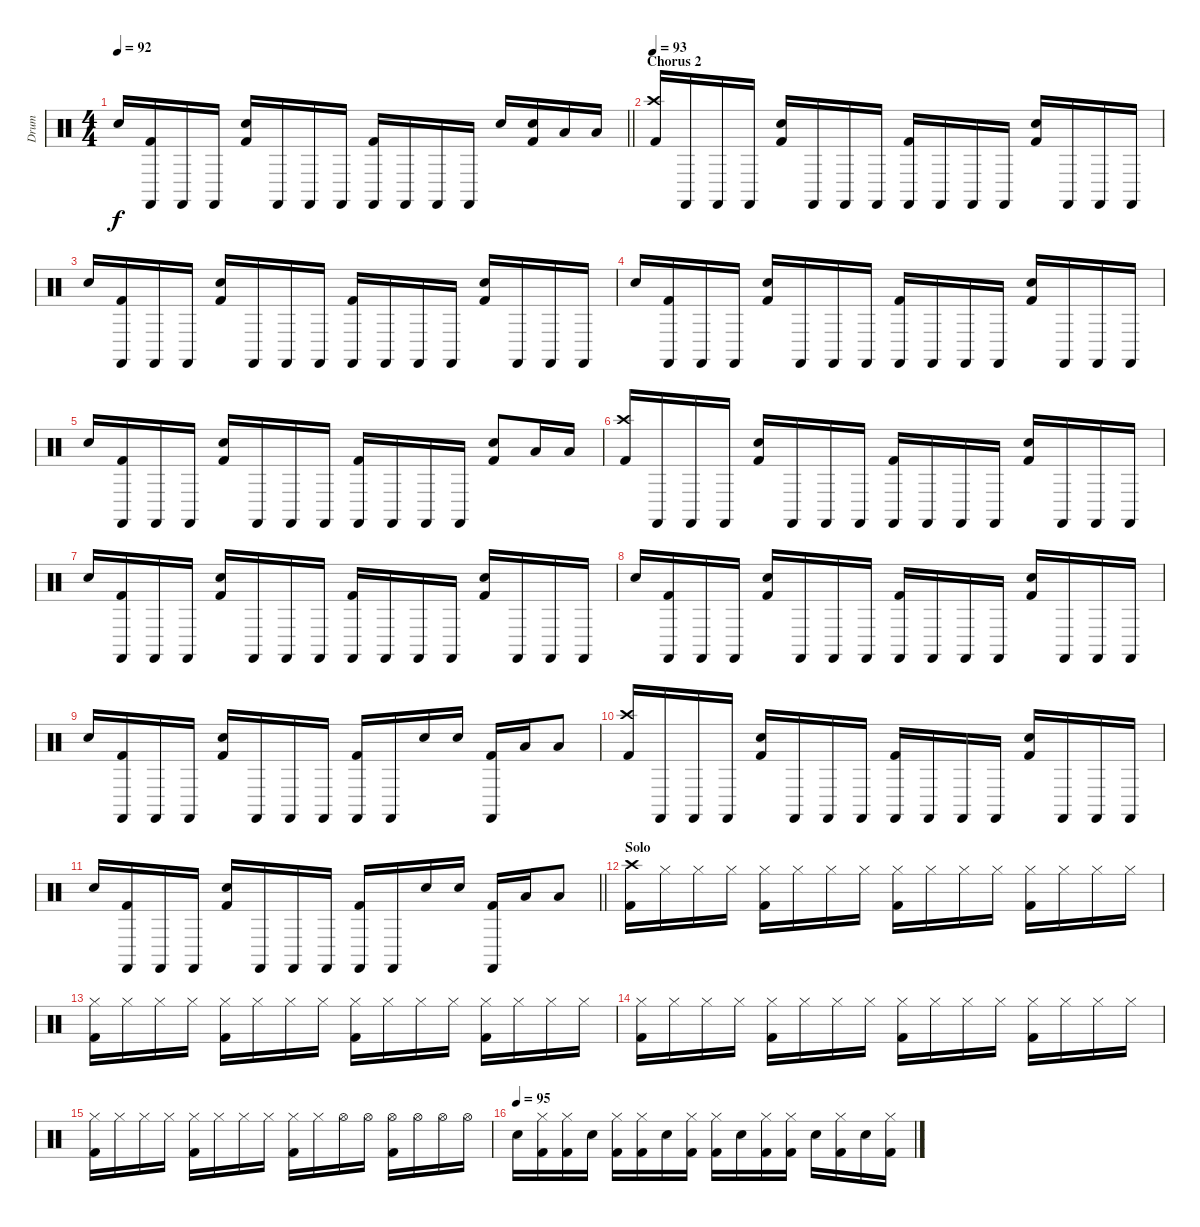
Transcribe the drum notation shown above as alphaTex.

\track ("Drum" "Drum") {instrument percussion}
\staff {score}
\articulation defaults
\ts (4 4)
\tempo 92
\clef neutral
\barLineRight lightlight
\ks c "Snare (hit) 2".16{dy f}
("Castanets (hit)" "Kick (hit) 2").16 "Castanets (hit)".16 "Castanets (hit)".16 ("Snare (hit) 2" "Kick (hit) 2").16 "Castanets (hit)".16 "Castanets (hit)".16 "Castanets (hit)".16 ("Castanets (hit)" "Kick (hit) 2").16 "Castanets (hit)".16 "Castanets (hit)".16 "Castanets (hit)".16 "Snare (hit) 2".16 ("Snare (hit) 2" "Kick (hit) 2").16 "Low Tom (hit)".16 "Low Tom (hit)".16 |
\section ("" "Chorus 2")
\tempo 93
("Crash high (hit)" "Kick (hit) 2").16 "Castanets (hit)".16 "Castanets (hit)".16 "Castanets (hit)".16 ("Snare (hit) 2" "Kick (hit) 2").16 "Castanets (hit)".16 "Castanets (hit)".16 "Castanets (hit)".16 ("Castanets (hit)" "Kick (hit) 2").16 "Castanets (hit)".16 "Castanets (hit)".16 "Castanets (hit)".16 ("Snare (hit) 2" "Kick (hit) 2").16 "Castanets (hit)".16 "Castanets (hit)".16 "Castanets (hit)".16 |
"Snare (hit) 2".16 ("Castanets (hit)" "Kick (hit) 2").16 "Castanets (hit)".16 "Castanets (hit)".16 ("Snare (hit) 2" "Kick (hit) 2").16 "Castanets (hit)".16 "Castanets (hit)".16 "Castanets (hit)".16 ("Castanets (hit)" "Kick (hit) 2").16 "Castanets (hit)".16 "Castanets (hit)".16 "Castanets (hit)".16 ("Snare (hit) 2" "Kick (hit) 2").16 "Castanets (hit)".16 "Castanets (hit)".16 "Castanets (hit)".16 |
"Snare (hit) 2".16 ("Castanets (hit)" "Kick (hit) 2").16 "Castanets (hit)".16 "Castanets (hit)".16 ("Snare (hit) 2" "Kick (hit) 2").16 "Castanets (hit)".16 "Castanets (hit)".16 "Castanets (hit)".16 ("Castanets (hit)" "Kick (hit) 2").16 "Castanets (hit)".16 "Castanets (hit)".16 "Castanets (hit)".16 ("Snare (hit) 2" "Kick (hit) 2").16 "Castanets (hit)".16 "Castanets (hit)".16 "Castanets (hit)".16 |
"Snare (hit) 2".16 ("Castanets (hit)" "Kick (hit) 2").16 "Castanets (hit)".16 "Castanets (hit)".16 ("Snare (hit) 2" "Kick (hit) 2").16 "Castanets (hit)".16 "Castanets (hit)".16 "Castanets (hit)".16 ("Castanets (hit)" "Kick (hit) 2").16 "Castanets (hit)".16 "Castanets (hit)".16 "Castanets (hit)".16 ("Snare (hit) 2" "Kick (hit) 2").8 "Low Tom (hit)".16 "Low Tom (hit)".16 |
("Crash high (hit)" "Kick (hit) 2").16 "Castanets (hit)".16 "Castanets (hit)".16 "Castanets (hit)".16 ("Snare (hit) 2" "Kick (hit) 2").16 "Castanets (hit)".16 "Castanets (hit)".16 "Castanets (hit)".16 ("Castanets (hit)" "Kick (hit) 2").16 "Castanets (hit)".16 "Castanets (hit)".16 "Castanets (hit)".16 ("Snare (hit) 2" "Kick (hit) 2").16 "Castanets (hit)".16 "Castanets (hit)".16 "Castanets (hit)".16 |
"Snare (hit) 2".16 ("Castanets (hit)" "Kick (hit) 2").16 "Castanets (hit)".16 "Castanets (hit)".16 ("Snare (hit) 2" "Kick (hit) 2").16 "Castanets (hit)".16 "Castanets (hit)".16 "Castanets (hit)".16 ("Castanets (hit)" "Kick (hit) 2").16 "Castanets (hit)".16 "Castanets (hit)".16 "Castanets (hit)".16 ("Snare (hit) 2" "Kick (hit) 2").16 "Castanets (hit)".16 "Castanets (hit)".16 "Castanets (hit)".16 |
"Snare (hit) 2".16 ("Castanets (hit)" "Kick (hit) 2").16 "Castanets (hit)".16 "Castanets (hit)".16 ("Snare (hit) 2" "Kick (hit) 2").16 "Castanets (hit)".16 "Castanets (hit)".16 "Castanets (hit)".16 ("Castanets (hit)" "Kick (hit) 2").16 "Castanets (hit)".16 "Castanets (hit)".16 "Castanets (hit)".16 ("Snare (hit) 2" "Kick (hit) 2").16 "Castanets (hit)".16 "Castanets (hit)".16 "Castanets (hit)".16 |
"Snare (hit) 2".16 ("Castanets (hit)" "Kick (hit) 2").16 "Castanets (hit)".16 "Castanets (hit)".16 ("Snare (hit) 2" "Kick (hit) 2").16 "Castanets (hit)".16 "Castanets (hit)".16 "Castanets (hit)".16 ("Castanets (hit)" "Kick (hit) 2").16 "Castanets (hit)".16 "Snare (hit) 2".16 "Snare (hit) 2".16 ("Castanets (hit)" "Kick (hit) 2").16 "Low Tom (hit)".16 "Low Tom (hit)".8 |
("Crash high (hit)" "Kick (hit) 2").16 "Castanets (hit)".16 "Castanets (hit)".16 "Castanets (hit)".16 ("Snare (hit) 2" "Kick (hit) 2").16 "Castanets (hit)".16 "Castanets (hit)".16 "Castanets (hit)".16 ("Castanets (hit)" "Kick (hit) 2").16 "Castanets (hit)".16 "Castanets (hit)".16 "Castanets (hit)".16 ("Snare (hit) 2" "Kick (hit) 2").16 "Castanets (hit)".16 "Castanets (hit)".16 "Castanets (hit)".16 |
\barLineRight lightlight "Snare (hit) 2".16
("Castanets (hit)" "Kick (hit) 2").16 "Castanets (hit)".16 "Castanets (hit)".16 ("Snare (hit) 2" "Kick (hit) 2").16 "Castanets (hit)".16 "Castanets (hit)".16 "Castanets (hit)".16 ("Castanets (hit)" "Kick (hit) 2").16 "Castanets (hit)".16 "Snare (hit) 2".16 "Snare (hit) 2".16 ("Castanets (hit)" "Kick (hit) 2").16 "Low Tom (hit)".16 "Low Tom (hit)".8 |
\section ("" "Solo")
("Crash high (hit)" "Kick (hit) 2").16 "Hi-Hat (closed)".16 "Hi-Hat (closed)".16 "Hi-Hat (closed)".16 ("Hi-Hat (closed)" "Kick (hit) 2").16 "Hi-Hat (closed)".16 "Hi-Hat (closed)".16 "Hi-Hat (closed)".16 ("Hi-Hat (closed)" "Kick (hit) 2").16 "Hi-Hat (closed)".16 "Hi-Hat (closed)".16 "Hi-Hat (closed)".16 ("Hi-Hat (closed)" "Kick (hit) 2").16 "Hi-Hat (closed)".16 "Hi-Hat (closed)".16 "Hi-Hat (closed)".16 |
("Hi-Hat (closed)" "Kick (hit) 2").16 "Hi-Hat (closed)".16 "Hi-Hat (closed)".16 "Hi-Hat (closed)".16 ("Hi-Hat (closed)" "Kick (hit) 2").16 "Hi-Hat (closed)".16 "Hi-Hat (closed)".16 "Hi-Hat (closed)".16 ("Hi-Hat (closed)" "Kick (hit) 2").16 "Hi-Hat (closed)".16 "Hi-Hat (closed)".16 "Hi-Hat (closed)".16 ("Hi-Hat (closed)" "Kick (hit) 2").16 "Hi-Hat (closed)".16 "Hi-Hat (closed)".16 "Hi-Hat (closed)".16 |
("Hi-Hat (closed)" "Kick (hit) 2").16 "Hi-Hat (closed)".16 "Hi-Hat (closed)".16 "Hi-Hat (closed)".16 ("Hi-Hat (closed)" "Kick (hit) 2").16 "Hi-Hat (closed)".16 "Hi-Hat (closed)".16 "Hi-Hat (closed)".16 ("Hi-Hat (closed)" "Kick (hit) 2").16 "Hi-Hat (closed)".16 "Hi-Hat (closed)".16 "Hi-Hat (closed)".16 ("Hi-Hat (closed)" "Kick (hit) 2").16 "Hi-Hat (closed)".16 "Hi-Hat (closed)".16 "Hi-Hat (closed)".16 |
("Hi-Hat (closed)" "Kick (hit) 2").16 "Hi-Hat (closed)".16 "Hi-Hat (closed)".16 "Hi-Hat (closed)".16 ("Hi-Hat (closed)" "Kick (hit) 2").16 "Hi-Hat (closed)".16 "Hi-Hat (closed)".16 "Hi-Hat (closed)".16 ("Hi-Hat (closed)" "Kick (hit) 2").16 "Hi-Hat (closed)".16 "Hi-Hat (open)".16 "Hi-Hat (open)".16 ("Hi-Hat (open)" "Kick (hit) 2").16 "Hi-Hat (open)".16 "Hi-Hat (open)".16 "Hi-Hat (open)".16 |
\tempo (95)
"Snare (hit) 2".16 ("Hi-Hat (closed)" "Kick (hit) 2").16 ("Hi-Hat (closed)" "Kick (hit) 2").16 "Snare (hit) 2".16 ("Hi-Hat (closed)" "Kick (hit) 2").16 ("Hi-Hat (closed)" "Kick (hit) 2").16 "Snare (hit) 2".16 ("Hi-Hat (closed)" "Kick (hit) 2").16 ("Hi-Hat (closed)" "Kick (hit) 2").16 "Snare (hit) 2".16 ("Hi-Hat (closed)" "Kick (hit) 2").16 ("Hi-Hat (closed)" "Kick (hit) 2").16 "Snare (hit) 2".16 ("Hi-Hat (closed)" "Kick (hit) 2").16 "Snare (hit) 2".16 ("Hi-Hat (closed)" "Kick (hit) 2").16
